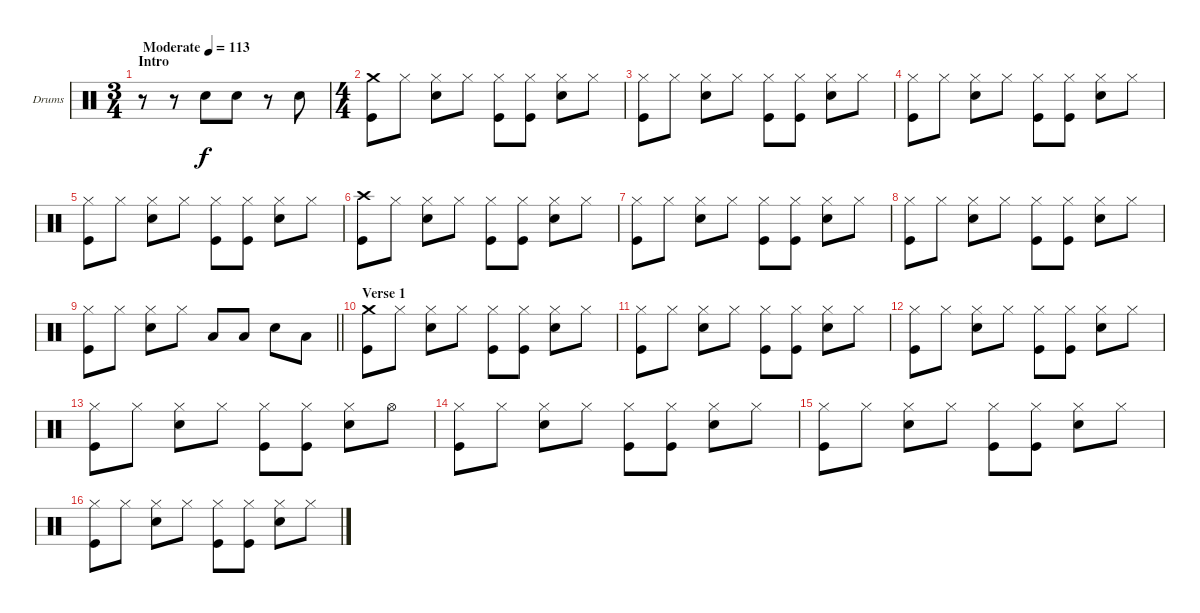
\bracketExtendMode groupsimilarinstruments
\firstSystemTrackNameOrientation horizontal
\otherSystemsTrackNameOrientation horizontal
\track ("Drumkit" "Drums") {instrument percussion}
\staff {score}
\articulation defaults
\ts (3 4)
\beaming (8 2 2 2)
\section ("" "Intro")
\tempo (113 "Moderate")
\clef neutral
\ks c
r.8{dy f} r.8 "Snare (hit) 2".8 "Snare (hit) 2".8 r.8 "Snare (hit) 2".8 |
\ts (4 4)
\beaming (8 2 2 2 2)
("Crash medium (hit)" "Kick (hit)").8 "Hi-Hat (closed)".8 ("Hi-Hat (closed)" "Snare (hit) 2").8 "Hi-Hat (closed)".8 ("Hi-Hat (closed)" "Kick (hit)").8 ("Hi-Hat (closed)" "Kick (hit)").8 ("Hi-Hat (closed)" "Snare (hit) 2").8 "Hi-Hat (closed)".8 |
("Hi-Hat (closed)" "Kick (hit)").8 "Hi-Hat (closed)".8 ("Hi-Hat (closed)" "Snare (hit) 2").8 "Hi-Hat (closed)".8 ("Hi-Hat (closed)" "Kick (hit)").8 ("Hi-Hat (closed)" "Kick (hit)").8 ("Hi-Hat (closed)" "Snare (hit) 2").8 "Hi-Hat (closed)".8 |
("Hi-Hat (closed)" "Kick (hit)").8 "Hi-Hat (closed)".8 ("Hi-Hat (closed)" "Snare (hit) 2").8 "Hi-Hat (closed)".8 ("Hi-Hat (closed)" "Kick (hit)").8 ("Hi-Hat (closed)" "Kick (hit)").8 ("Hi-Hat (closed)" "Snare (hit) 2").8 "Hi-Hat (closed)".8 |
("Hi-Hat (closed)" "Kick (hit)").8 "Hi-Hat (closed)".8 ("Hi-Hat (closed)" "Snare (hit) 2").8 "Hi-Hat (closed)".8 ("Hi-Hat (closed)" "Kick (hit)").8 ("Hi-Hat (closed)" "Kick (hit)").8 ("Hi-Hat (closed)" "Snare (hit) 2").8 "Hi-Hat (closed)".8 |
("Crash high (hit)" "Kick (hit)").8 "Hi-Hat (closed)".8 ("Hi-Hat (closed)" "Snare (hit) 2").8 "Hi-Hat (closed)".8 ("Hi-Hat (closed)" "Kick (hit)").8 ("Hi-Hat (closed)" "Kick (hit)").8 ("Hi-Hat (closed)" "Snare (hit) 2").8 "Hi-Hat (closed)".8 |
("Hi-Hat (closed)" "Kick (hit)").8 "Hi-Hat (closed)".8 ("Hi-Hat (closed)" "Snare (hit) 2").8 "Hi-Hat (closed)".8 ("Hi-Hat (closed)" "Kick (hit)").8 ("Hi-Hat (closed)" "Kick (hit)").8 ("Hi-Hat (closed)" "Snare (hit) 2").8 "Hi-Hat (closed)".8 |
("Hi-Hat (closed)" "Kick (hit)").8 "Hi-Hat (closed)".8 ("Hi-Hat (closed)" "Snare (hit) 2").8 "Hi-Hat (closed)".8 ("Hi-Hat (closed)" "Kick (hit)").8 ("Hi-Hat (closed)" "Kick (hit)").8 ("Hi-Hat (closed)" "Snare (hit) 2").8 "Hi-Hat (closed)".8 |
\barLineRight lightlight
("Hi-Hat (closed)" "Kick (hit)").8 "Hi-Hat (closed)".8 ("Hi-Hat (closed)" "Snare (hit) 2").8 "Hi-Hat (closed)".8 "Low Tom (hit)".8 "Low Tom (hit)".8 "Snare (hit) 2".8 "Low Tom (hit)".8 |
\section ("" "Verse 1")
("Crash medium (hit)" "Kick (hit)").8 "Hi-Hat (closed)".8 ("Hi-Hat (closed)" "Snare (hit) 2").8 "Hi-Hat (closed)".8 ("Hi-Hat (closed)" "Kick (hit)").8 ("Hi-Hat (closed)" "Kick (hit)").8 ("Hi-Hat (closed)" "Snare (hit) 2").8 "Hi-Hat (closed)".8 |
("Hi-Hat (closed)" "Kick (hit)").8 "Hi-Hat (closed)".8 ("Hi-Hat (closed)" "Snare (hit) 2").8 "Hi-Hat (closed)".8 ("Hi-Hat (closed)" "Kick (hit)").8 ("Hi-Hat (closed)" "Kick (hit)").8 ("Hi-Hat (closed)" "Snare (hit) 2").8 "Hi-Hat (closed)".8 |
("Hi-Hat (closed)" "Kick (hit)").8 "Hi-Hat (closed)".8 ("Hi-Hat (closed)" "Snare (hit) 2").8 "Hi-Hat (closed)".8 ("Hi-Hat (closed)" "Kick (hit)").8 ("Hi-Hat (closed)" "Kick (hit)").8 ("Hi-Hat (closed)" "Snare (hit) 2").8 "Hi-Hat (closed)".8 |
("Hi-Hat (closed)" "Kick (hit)").8 "Hi-Hat (closed)".8 ("Hi-Hat (closed)" "Snare (hit) 2").8 "Hi-Hat (closed)".8 ("Hi-Hat (closed)" "Kick (hit)").8 ("Hi-Hat (closed)" "Kick (hit)").8 ("Hi-Hat (closed)" "Snare (hit) 2").8 "Hi-Hat (open)".8 |
("Hi-Hat (closed)" "Kick (hit)").8 "Hi-Hat (closed)".8 ("Hi-Hat (closed)" "Snare (hit) 2").8 "Hi-Hat (closed)".8 ("Hi-Hat (closed)" "Kick (hit)").8 ("Hi-Hat (closed)" "Kick (hit)").8 ("Hi-Hat (closed)" "Snare (hit) 2").8 "Hi-Hat (closed)".8 |
("Hi-Hat (closed)" "Kick (hit)").8 "Hi-Hat (closed)".8 ("Hi-Hat (closed)" "Snare (hit) 2").8 "Hi-Hat (closed)".8 ("Hi-Hat (closed)" "Kick (hit)").8 ("Hi-Hat (closed)" "Kick (hit)").8 ("Hi-Hat (closed)" "Snare (hit) 2").8 "Hi-Hat (closed)".8 |
("Hi-Hat (closed)" "Kick (hit)").8 "Hi-Hat (closed)".8 ("Hi-Hat (closed)" "Snare (hit) 2").8 "Hi-Hat (closed)".8 ("Hi-Hat (closed)" "Kick (hit)").8 ("Hi-Hat (closed)" "Kick (hit)").8 ("Hi-Hat (closed)" "Snare (hit) 2").8 "Hi-Hat (closed)".8
